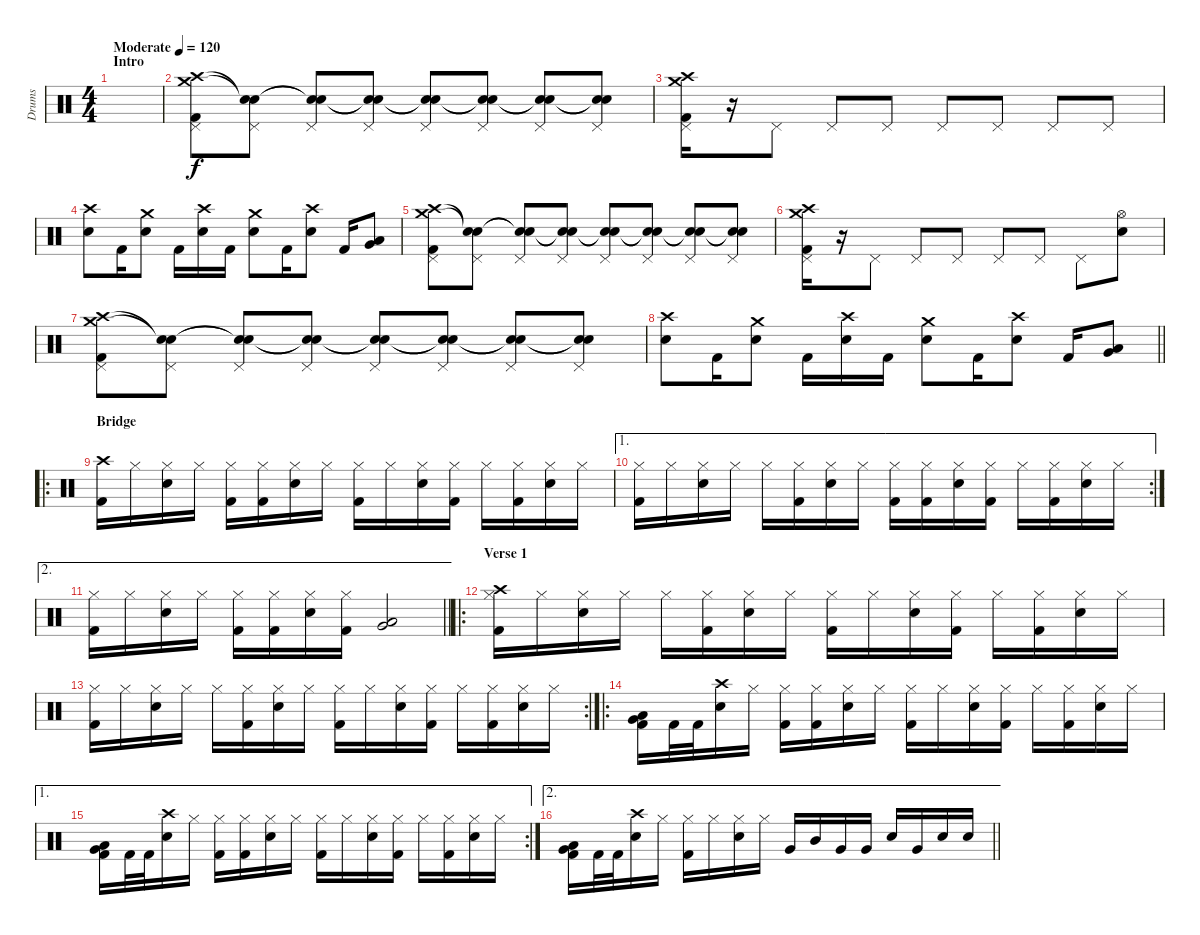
\track ("Drums" "Drums") {instrument percussion}
\staff {score}
\articulation defaults
\ts (4 4)
\section ("" "Intro")
\tempo (120 "Moderate")
\clef neutral
\ks c
|
("Crash high (hit)" "Crash medium (hit)" "Pedal Hi-Hat (hit)" "Kick (hit) 2").8 ("Snare (hit)"{t} "Snare (hit)"{t} "Pedal Hi-Hat (hit)").8 ("Snare (hit)"{t} "Snare (hit)"{t} "Pedal Hi-Hat (hit)").8 ("Snare (hit)"{t} "Snare (hit)"{t} "Pedal Hi-Hat (hit)").8 ("Snare (hit)"{t} "Snare (hit)"{t} "Pedal Hi-Hat (hit)").8 ("Snare (hit)"{t} "Snare (hit)"{t} "Pedal Hi-Hat (hit)").8 ("Snare (hit)"{t} "Snare (hit)"{t} "Pedal Hi-Hat (hit)").8 ("Snare (hit)"{t} "Snare (hit)"{t} "Pedal Hi-Hat (hit)").8 |
("Crash high (hit)" "Crash medium (hit)" "Pedal Hi-Hat (hit)" "Kick (hit) 2").16 r.16 "Pedal Hi-Hat (hit)".8 "Pedal Hi-Hat (hit)".8 "Pedal Hi-Hat (hit)".8 "Pedal Hi-Hat (hit)".8 "Pedal Hi-Hat (hit)".8 "Pedal Hi-Hat (hit)".8 "Pedal Hi-Hat (hit)".8 |
("Crash high (hit)" "Snare (hit) 2").8 "Kick (hit) 2".16 ("Crash medium (hit)" "Snare (hit) 2").8 "Kick (hit) 2".16 ("Crash high (hit)" "Snare (hit) 2").16 "Kick (hit) 2".16 ("Crash medium (hit)" "Snare (hit) 2").8 "Kick (hit) 2".16 ("Crash high (hit)" "Snare (hit) 2").8 "Kick (hit) 2".16 ("Very Low Tom (hit)" "Low Floor Tom (hit)").8 |
("Crash high (hit)" "Crash medium (hit)" "Pedal Hi-Hat (hit)" "Kick (hit) 2").8 ("Snare (hit)"{t} "Snare (hit)"{t} "Pedal Hi-Hat (hit)").8 ("Snare (hit)"{t} "Snare (hit)"{t} "Pedal Hi-Hat (hit)").8 ("Snare (hit)"{t} "Snare (hit)"{t} "Pedal Hi-Hat (hit)").8 ("Snare (hit)"{t} "Snare (hit)"{t} "Pedal Hi-Hat (hit)").8 ("Snare (hit)"{t} "Snare (hit)"{t} "Pedal Hi-Hat (hit)").8 ("Snare (hit)"{t} "Snare (hit)"{t} "Pedal Hi-Hat (hit)").8 ("Snare (hit)"{t} "Snare (hit)"{t} "Pedal Hi-Hat (hit)").8 |
("Crash high (hit)" "Crash medium (hit)" "Pedal Hi-Hat (hit)" "Kick (hit) 2").16 r.16 "Pedal Hi-Hat (hit)".8 "Pedal Hi-Hat (hit)".8 "Pedal Hi-Hat (hit)".8 "Pedal Hi-Hat (hit)".8 "Pedal Hi-Hat (hit)".8 "Pedal Hi-Hat (hit)".8 ("Snare (hit) 2" "Hi-Hat (open)").8 |
("Crash high (hit)" "Crash medium (hit)" "Pedal Hi-Hat (hit)" "Kick (hit) 2").8 ("Snare (hit)"{t} "Snare (hit)"{t} "Pedal Hi-Hat (hit)").8 ("Snare (hit)"{t} "Snare (hit)"{t} "Pedal Hi-Hat (hit)").8 ("Snare (hit)"{t} "Snare (hit)"{t} "Pedal Hi-Hat (hit)").8 ("Snare (hit)"{t} "Snare (hit)"{t} "Pedal Hi-Hat (hit)").8 ("Snare (hit)"{t} "Snare (hit)"{t} "Pedal Hi-Hat (hit)").8 ("Snare (hit)"{t} "Snare (hit)"{t} "Pedal Hi-Hat (hit)").8 ("Snare (hit)"{t} "Snare (hit)"{t} "Pedal Hi-Hat (hit)").8 |
\barLineRight lightlight
("Crash high (hit)" "Snare (hit) 2").8 "Kick (hit) 2".16 ("Crash medium (hit)" "Snare (hit) 2").8 "Kick (hit) 2".16 ("Crash high (hit)" "Snare (hit) 2").16 "Kick (hit) 2".16 ("Crash medium (hit)" "Snare (hit) 2").8 "Kick (hit) 2".16 ("Crash high (hit)" "Snare (hit) 2").8 "Kick (hit) 2".16 ("Very Low Tom (hit)" "Low Floor Tom (hit)").8 |
\ro
\section ("" "Bridge")
("Crash high (hit)" "Kick (hit) 2").16 "Hi-Hat (closed)".16 ("Hi-Hat (closed)" "Snare (hit) 2").16 "Hi-Hat (closed)".16 ("Hi-Hat (closed)" "Kick (hit) 2").16 ("Hi-Hat (closed)" "Kick (hit) 2").16 ("Hi-Hat (closed)" "Snare (hit) 2").16 "Hi-Hat (closed)".16 ("Hi-Hat (closed)" "Kick (hit) 2").16 "Hi-Hat (closed)".16 ("Hi-Hat (closed)" "Snare (hit) 2").16 ("Hi-Hat (closed)" "Kick (hit) 2").16 "Hi-Hat (closed)".16 ("Hi-Hat (closed)" "Kick (hit) 2").16 ("Hi-Hat (closed)" "Snare (hit) 2").16 "Hi-Hat (closed)".16 |
\ae 1
\rc 2
("Hi-Hat (closed)" "Kick (hit) 2").16 "Hi-Hat (closed)".16 ("Hi-Hat (closed)" "Snare (hit) 2").16 "Hi-Hat (closed)".16 "Hi-Hat (closed)".16 ("Hi-Hat (closed)" "Kick (hit) 2").16 ("Hi-Hat (closed)" "Snare (hit) 2").16 "Hi-Hat (closed)".16 ("Hi-Hat (closed)" "Kick (hit) 2").16 ("Hi-Hat (closed)" "Kick (hit) 2").16 ("Hi-Hat (closed)" "Snare (hit) 2").16 ("Hi-Hat (closed)" "Kick (hit) 2").16 "Hi-Hat (closed)".16 ("Hi-Hat (closed)" "Kick (hit) 2").16 ("Hi-Hat (closed)" "Snare (hit) 2").16 "Hi-Hat (closed)".16 |
\ae 2
\barLineRight lightlight
("Hi-Hat (closed)" "Kick (hit) 2").16 "Hi-Hat (closed)".16 ("Hi-Hat (closed)" "Snare (hit) 2").16 "Hi-Hat (closed)".16 ("Hi-Hat (closed)" "Kick (hit) 2").16 ("Hi-Hat (closed)" "Kick (hit) 2").16 ("Hi-Hat (closed)" "Snare (hit) 2").16 ("Hi-Hat (closed)" "Kick (hit) 2").16 ("Very Low Tom (hit)" "Low Floor Tom (hit)").2 |
\ro
\section ("" "Verse 1")
("Crash high (hit)" "Hi-Hat (closed)" "Kick (hit) 2").16 "Hi-Hat (closed)".16 ("Hi-Hat (closed)" "Snare (hit) 2").16 "Hi-Hat (closed)".16 "Hi-Hat (closed)".16 ("Hi-Hat (closed)" "Kick (hit) 2").16 ("Hi-Hat (closed)" "Snare (hit) 2").16 "Hi-Hat (closed)".16 ("Hi-Hat (closed)" "Kick (hit) 2").16 "Hi-Hat (closed)".16 ("Hi-Hat (closed)" "Snare (hit) 2").16 ("Hi-Hat (closed)" "Kick (hit) 2").16 "Hi-Hat (closed)".16 ("Hi-Hat (closed)" "Kick (hit) 2").16 ("Hi-Hat (closed)" "Snare (hit) 2").16 "Hi-Hat (closed)".16 |
\rc 2
("Hi-Hat (closed)" "Kick (hit) 2").16 "Hi-Hat (closed)".16 ("Hi-Hat (closed)" "Snare (hit) 2").16 "Hi-Hat (closed)".16 "Hi-Hat (closed)".16 ("Hi-Hat (closed)" "Kick (hit) 2").16 ("Hi-Hat (closed)" "Snare (hit) 2").16 "Hi-Hat (closed)".16 ("Hi-Hat (closed)" "Kick (hit) 2").16 "Hi-Hat (closed)".16 ("Hi-Hat (closed)" "Snare (hit) 2").16 ("Hi-Hat (closed)" "Kick (hit) 2").16 "Hi-Hat (closed)".16 ("Hi-Hat (closed)" "Kick (hit) 2").16 ("Hi-Hat (closed)" "Snare (hit) 2").16 "Hi-Hat (closed)".16 |
\ro
("Very Low Tom (hit)" "Low Floor Tom (hit)" "Kick (hit) 2").16 "Kick (hit) 2".32 "Kick (hit) 2".32 ("Crash high (hit)" "Snare (hit) 2").16 "Hi-Hat (closed)".16 ("Hi-Hat (closed)" "Kick (hit) 2").16 ("Hi-Hat (closed)" "Kick (hit) 2").16 ("Hi-Hat (closed)" "Snare (hit) 2").16 "Hi-Hat (closed)".16 ("Hi-Hat (closed)" "Kick (hit) 2").16 "Hi-Hat (closed)".16 ("Hi-Hat (closed)" "Snare (hit) 2").16 ("Hi-Hat (closed)" "Kick (hit) 2").16 "Hi-Hat (closed)".16 ("Hi-Hat (closed)" "Kick (hit) 2").16 ("Hi-Hat (closed)" "Snare (hit) 2").16 "Hi-Hat (closed)".16 |
\ae 1
\rc 2
("Very Low Tom (hit)" "Low Floor Tom (hit)" "Kick (hit) 2").16 "Kick (hit) 2".32 "Kick (hit) 2".32 ("Crash high (hit)" "Snare (hit) 2").16 "Hi-Hat (closed)".16 ("Hi-Hat (closed)" "Kick (hit) 2").16 ("Hi-Hat (closed)" "Kick (hit) 2").16 ("Hi-Hat (closed)" "Snare (hit) 2").16 "Hi-Hat (closed)".16 ("Hi-Hat (closed)" "Kick (hit) 2").16 "Hi-Hat (closed)".16 ("Hi-Hat (closed)" "Snare (hit) 2").16 ("Hi-Hat (closed)" "Kick (hit) 2").16 "Hi-Hat (closed)".16 ("Hi-Hat (closed)" "Kick (hit) 2").16 ("Hi-Hat (closed)" "Snare (hit) 2").16 "Hi-Hat (closed)".16 |
\ae 2
\barLineRight lightlight
("Very Low Tom (hit)" "Low Floor Tom (hit)" "Kick (hit) 2").16 "Kick (hit) 2".32 "Kick (hit) 2".32 ("Crash high (hit)" "Snare (hit) 2").16 "Hi-Hat (closed)".16 ("Hi-Hat (closed)" "Kick (hit) 2").16 "Hi-Hat (closed)".16 ("Hi-Hat (closed)" "Snare (hit) 2").16 "Hi-Hat (closed)".16 "Very Low Tom (hit)".16 "Mid Tom (hit)".16 "Very Low Tom (hit)".16 "Very Low Tom (hit)".16 "Snare (hit) 2".16 "Very Low Tom (hit)".16 "Snare (hit) 2".16 "Snare (hit) 2".16
